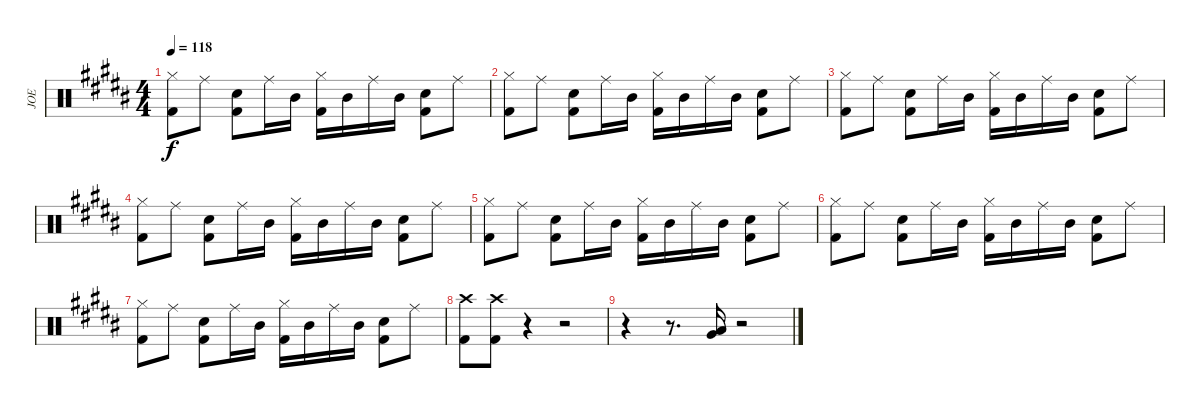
\track ("JOE" "JOE") {instrument percussion}
\staff {score}
\articulation defaults
\ts (4 4)
\tempo 118
\clef neutral
\ks b
("Hi-Hat (closed)" "Kick (hit) 2").8{dy f} "Ride (middle)".8 ("Kick (hit) 2" "Snare (hit) 2").8 "Ride (middle)".16 "Mid Tom (hit)".16 ("Hi-Hat (closed)" "Kick (hit) 2").16 "Mid Tom (hit)".16 "Ride (middle)".16 "Mid Tom (hit)".16 ("Snare (hit) 2" "Kick (hit) 2").8 "Ride (middle)".8 |
("Hi-Hat (closed)" "Kick (hit) 2").8 "Ride (middle)".8 ("Kick (hit) 2" "Snare (hit) 2").8 "Ride (middle)".16 "Mid Tom (hit)".16 ("Hi-Hat (closed)" "Kick (hit) 2").16 "Mid Tom (hit)".16 "Ride (middle)".16 "Mid Tom (hit)".16 ("Snare (hit) 2" "Kick (hit) 2").8 "Ride (middle)".8 |
("Hi-Hat (closed)" "Kick (hit) 2").8 "Ride (middle)".8 ("Kick (hit) 2" "Snare (hit) 2").8 "Ride (middle)".16 "Mid Tom (hit)".16 ("Hi-Hat (closed)" "Kick (hit) 2").16 "Mid Tom (hit)".16 "Ride (middle)".16 "Mid Tom (hit)".16 ("Snare (hit) 2" "Kick (hit) 2").8 "Ride (middle)".8 |
("Hi-Hat (closed)" "Kick (hit) 2").8 "Ride (middle)".8 ("Kick (hit) 2" "Snare (hit) 2").8 "Ride (middle)".16 "Mid Tom (hit)".16 ("Hi-Hat (closed)" "Kick (hit) 2").16 "Mid Tom (hit)".16 "Ride (middle)".16 "Mid Tom (hit)".16 ("Snare (hit) 2" "Kick (hit) 2").8 "Ride (middle)".8 |
("Hi-Hat (closed)" "Kick (hit) 2").8 "Ride (middle)".8 ("Kick (hit) 2" "Snare (hit) 2").8 "Ride (middle)".16 "Mid Tom (hit)".16 ("Hi-Hat (closed)" "Kick (hit) 2").16 "Mid Tom (hit)".16 "Ride (middle)".16 "Mid Tom (hit)".16 ("Snare (hit) 2" "Kick (hit) 2").8 "Ride (middle)".8 |
("Hi-Hat (closed)" "Kick (hit) 2").8 "Ride (middle)".8 ("Kick (hit) 2" "Snare (hit) 2").8 "Ride (middle)".16 "Mid Tom (hit)".16 ("Hi-Hat (closed)" "Kick (hit) 2").16 "Mid Tom (hit)".16 "Ride (middle)".16 "Mid Tom (hit)".16 ("Snare (hit) 2" "Kick (hit) 2").8 "Ride (middle)".8 |
("Hi-Hat (closed)" "Kick (hit) 2").8 "Ride (middle)".8 ("Kick (hit) 2" "Snare (hit) 2").8 "Ride (middle)".16 "Mid Tom (hit)".16 ("Hi-Hat (closed)" "Kick (hit) 2").16 "Mid Tom (hit)".16 "Ride (middle)".16 "Mid Tom (hit)".16 ("Snare (hit) 2" "Kick (hit) 2").8 "Ride (middle)".8 |
("Crash high (hit)" "Kick (hit) 2").8 ("Crash high (hit)" "Kick (hit) 2").8 r.4 r.2 |
r.4 r.8{d} ("Very Low Tom (hit)" "Low Floor Tom (hit)").16 r.2
